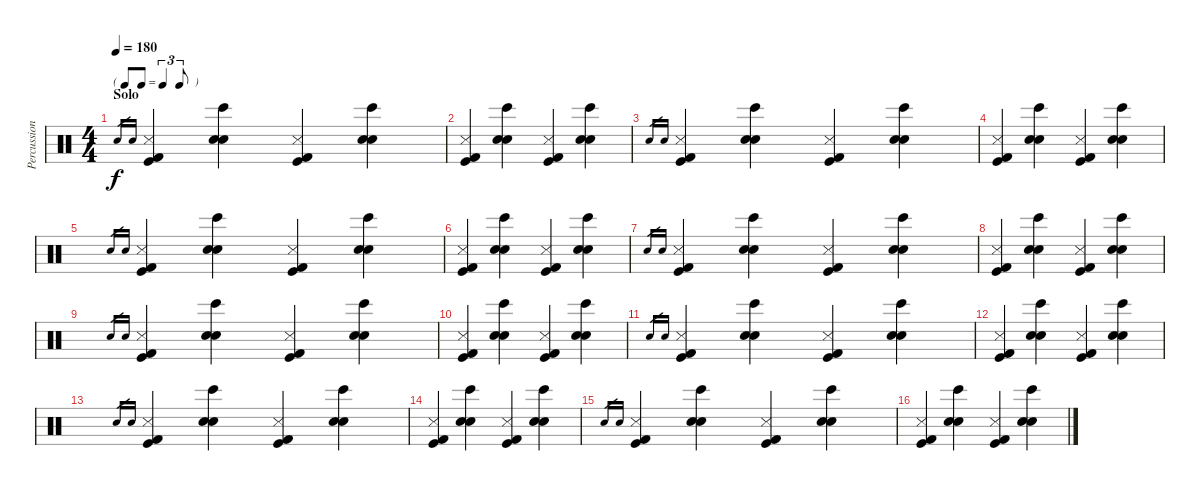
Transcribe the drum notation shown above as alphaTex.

\track ("Percussion" "Percussion") {instrument percussion}
\staff {score}
\articulation defaults
\ts (4 4)
\tf triplet8th
\section ("" "Solo")
\tempo 180
\clef neutral
\ks c "Electric Snare (hit)".16{gr dy f} "Snare (hit) 2".16{gr}
("Snare (side stick) 3" "Kick (hit)" "Kick (hit) 2").4 ("Bongo High (hit)" "Electric Snare (hit)" "Snare (hit) 2").4 ("Snare (side stick) 3" "Kick (hit)" "Kick (hit) 2").4 ("Bongo High (hit)" "Electric Snare (hit)" "Snare (hit) 2").4 |
("Snare (side stick) 3" "Kick (hit)" "Kick (hit) 2").4 ("Bongo High (hit)" "Electric Snare (hit)" "Snare (hit) 2").4 ("Snare (side stick) 3" "Kick (hit)" "Kick (hit) 2").4 ("Bongo High (hit)" "Electric Snare (hit)" "Snare (hit) 2").4 |
"Electric Snare (hit)".16{gr} "Snare (hit) 2".16{gr} ("Snare (side stick) 3" "Kick (hit)" "Kick (hit) 2").4 ("Bongo High (hit)" "Electric Snare (hit)" "Snare (hit) 2").4 ("Snare (side stick) 3" "Kick (hit)" "Kick (hit) 2").4 ("Bongo High (hit)" "Electric Snare (hit)" "Snare (hit) 2").4 |
("Snare (side stick) 3" "Kick (hit)" "Kick (hit) 2").4 ("Bongo High (hit)" "Electric Snare (hit)" "Snare (hit) 2").4 ("Snare (side stick) 3" "Kick (hit)" "Kick (hit) 2").4 ("Bongo High (hit)" "Electric Snare (hit)" "Snare (hit) 2").4 |
"Electric Snare (hit)".16{gr} "Snare (hit) 2".16{gr} ("Snare (side stick) 3" "Kick (hit)" "Kick (hit) 2").4 ("Bongo High (hit)" "Electric Snare (hit)" "Snare (hit) 2").4 ("Snare (side stick) 3" "Kick (hit)" "Kick (hit) 2").4 ("Bongo High (hit)" "Electric Snare (hit)" "Snare (hit) 2").4 |
("Snare (side stick) 3" "Kick (hit)" "Kick (hit) 2").4 ("Bongo High (hit)" "Electric Snare (hit)" "Snare (hit) 2").4 ("Snare (side stick) 3" "Kick (hit)" "Kick (hit) 2").4 ("Bongo High (hit)" "Electric Snare (hit)" "Snare (hit) 2").4 |
"Electric Snare (hit)".16{gr} "Snare (hit) 2".16{gr} ("Snare (side stick) 3" "Kick (hit)" "Kick (hit) 2").4 ("Bongo High (hit)" "Electric Snare (hit)" "Snare (hit) 2").4 ("Snare (side stick) 3" "Kick (hit)" "Kick (hit) 2").4 ("Bongo High (hit)" "Electric Snare (hit)" "Snare (hit) 2").4 |
("Snare (side stick) 3" "Kick (hit)" "Kick (hit) 2").4 ("Bongo High (hit)" "Electric Snare (hit)" "Snare (hit) 2").4 ("Snare (side stick) 3" "Kick (hit)" "Kick (hit) 2").4 ("Bongo High (hit)" "Electric Snare (hit)" "Snare (hit) 2").4 |
"Electric Snare (hit)".16{gr} "Snare (hit) 2".16{gr} ("Snare (side stick) 3" "Kick (hit)" "Kick (hit) 2").4 ("Bongo High (hit)" "Electric Snare (hit)" "Snare (hit) 2").4 ("Snare (side stick) 3" "Kick (hit)" "Kick (hit) 2").4 ("Bongo High (hit)" "Electric Snare (hit)" "Snare (hit) 2").4 |
("Snare (side stick) 3" "Kick (hit)" "Kick (hit) 2").4 ("Bongo High (hit)" "Electric Snare (hit)" "Snare (hit) 2").4 ("Snare (side stick) 3" "Kick (hit)" "Kick (hit) 2").4 ("Bongo High (hit)" "Electric Snare (hit)" "Snare (hit) 2").4 |
"Electric Snare (hit)".16{gr} "Snare (hit) 2".16{gr} ("Snare (side stick) 3" "Kick (hit)" "Kick (hit) 2").4 ("Bongo High (hit)" "Electric Snare (hit)" "Snare (hit) 2").4 ("Snare (side stick) 3" "Kick (hit)" "Kick (hit) 2").4 ("Bongo High (hit)" "Electric Snare (hit)" "Snare (hit) 2").4 |
("Snare (side stick) 3" "Kick (hit)" "Kick (hit) 2").4 ("Bongo High (hit)" "Electric Snare (hit)" "Snare (hit) 2").4 ("Snare (side stick) 3" "Kick (hit)" "Kick (hit) 2").4 ("Bongo High (hit)" "Electric Snare (hit)" "Snare (hit) 2").4 |
"Electric Snare (hit)".16{gr} "Snare (hit) 2".16{gr} ("Snare (side stick) 3" "Kick (hit)" "Kick (hit) 2").4 ("Bongo High (hit)" "Electric Snare (hit)" "Snare (hit) 2").4 ("Snare (side stick) 3" "Kick (hit)" "Kick (hit) 2").4 ("Bongo High (hit)" "Electric Snare (hit)" "Snare (hit) 2").4 |
("Snare (side stick) 3" "Kick (hit)" "Kick (hit) 2").4 ("Bongo High (hit)" "Electric Snare (hit)" "Snare (hit) 2").4 ("Snare (side stick) 3" "Kick (hit)" "Kick (hit) 2").4 ("Bongo High (hit)" "Electric Snare (hit)" "Snare (hit) 2").4 |
"Electric Snare (hit)".16{gr} "Snare (hit) 2".16{gr} ("Snare (side stick) 3" "Kick (hit)" "Kick (hit) 2").4 ("Bongo High (hit)" "Electric Snare (hit)" "Snare (hit) 2").4 ("Snare (side stick) 3" "Kick (hit)" "Kick (hit) 2").4 ("Bongo High (hit)" "Electric Snare (hit)" "Snare (hit) 2").4 |
("Snare (side stick) 3" "Kick (hit)" "Kick (hit) 2").4 ("Bongo High (hit)" "Electric Snare (hit)" "Snare (hit) 2").4 ("Snare (side stick) 3" "Kick (hit)" "Kick (hit) 2").4 ("Bongo High (hit)" "Electric Snare (hit)" "Snare (hit) 2").4
